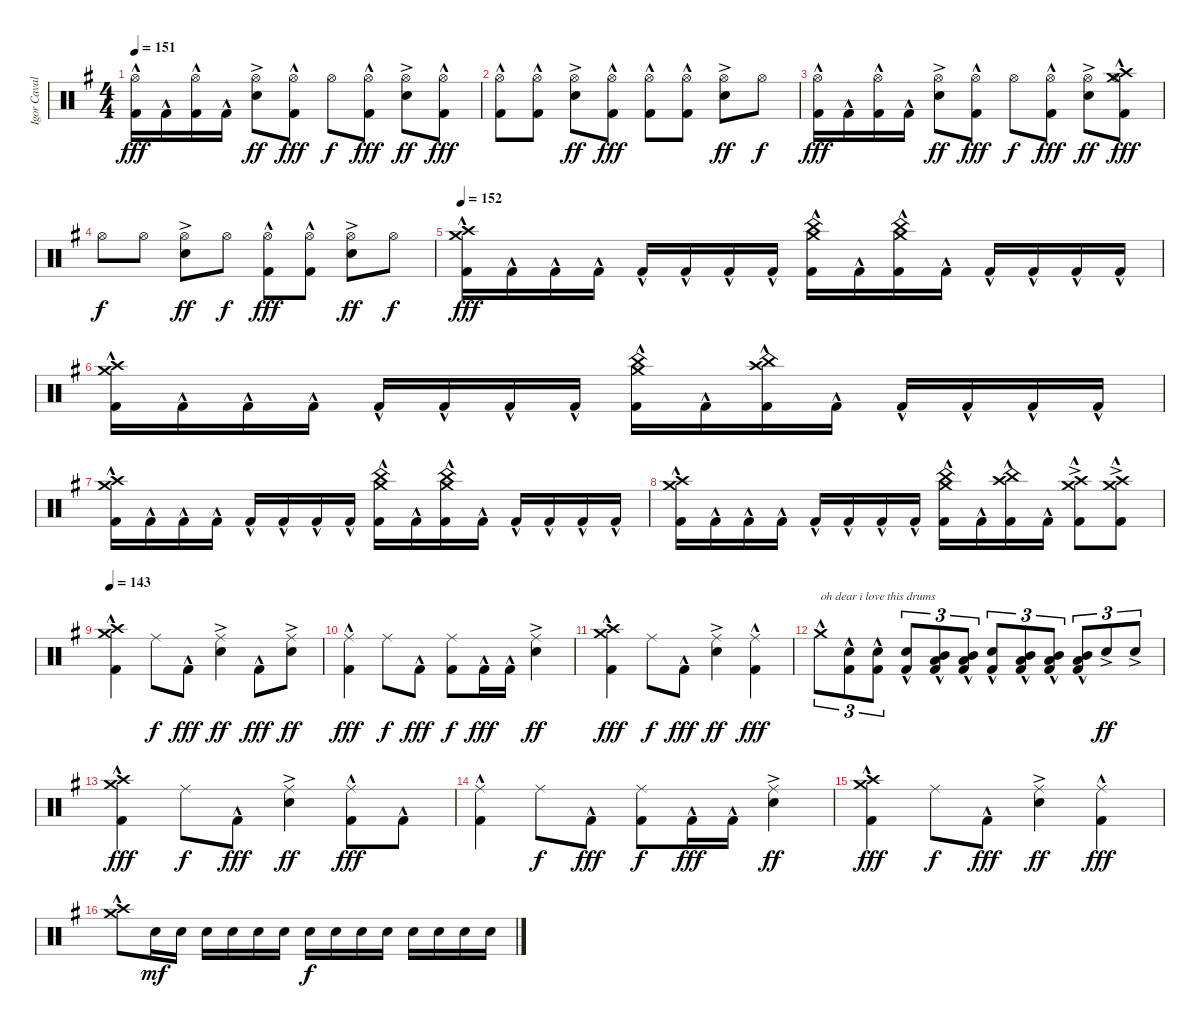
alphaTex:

\track ("Igor Cavalera" "Igor Caval") {instrument percussion}
\staff {score}
\articulation defaults
\ts (4 4)
\tempo 151
\clef neutral
\ks g
("Hi-Hat (open)" "Kick (hit) 2"{hac}).16{dy fff} "Kick (hit) 2"{hac}.16 ("Hi-Hat (open)" "Kick (hit) 2"{hac}).16 "Kick (hit) 2"{hac}.16 ("Snare (hit) 2"{ac} "Hi-Hat (open)").8{dy ff} ("Hi-Hat (open)" "Kick (hit) 2"{hac}).8{dy fff} "Hi-Hat (open)".8{dy f} ("Hi-Hat (open)" "Kick (hit) 2"{hac}).8{dy fff} ("Snare (hit) 2"{ac} "Hi-Hat (open)").8{dy ff} ("Hi-Hat (open)" "Kick (hit) 2"{hac}).8{dy fff} |
("Hi-Hat (open)" "Kick (hit) 2"{hac}).8 ("Hi-Hat (open)" "Kick (hit) 2"{hac}).8 ("Snare (hit) 2"{ac} "Hi-Hat (open)").8{dy ff} ("Hi-Hat (open)" "Kick (hit) 2"{hac}).8{dy fff} ("Hi-Hat (open)" "Kick (hit) 2"{hac}).8 ("Hi-Hat (open)" "Kick (hit) 2"{hac}).8 ("Snare (hit) 2"{ac} "Hi-Hat (open)").8{dy ff} "Hi-Hat (open)".8{dy f} |
("Hi-Hat (open)" "Kick (hit) 2"{hac}).16{dy fff} "Kick (hit) 2"{hac}.16 ("Hi-Hat (open)" "Kick (hit) 2"{hac}).16 "Kick (hit) 2"{hac}.16 ("Snare (hit) 2"{ac} "Hi-Hat (open)").8{dy ff} ("Hi-Hat (open)" "Kick (hit) 2"{hac}).8{dy fff} "Hi-Hat (open)".8{dy f} ("Hi-Hat (open)" "Kick (hit) 2"{hac}).8{dy fff} ("Snare (hit) 2"{ac} "Hi-Hat (open)").8{dy ff} ("Crash high (hit)"{hac} "Crash medium (hit)" "Hi-Hat (open)" "Kick (hit) 2"{hac}).8{dy fff} |
"Hi-Hat (open)".8{dy f} "Hi-Hat (open)".8 ("Snare (hit) 2"{ac} "Hi-Hat (open)").8{dy ff} "Hi-Hat (open)".8{dy f} ("Hi-Hat (open)" "Kick (hit) 2"{hac}).8{dy fff} ("Hi-Hat (open)" "Kick (hit) 2"{hac}).8 ("Snare (hit) 2"{ac} "Hi-Hat (open)").8{dy ff} "Hi-Hat (open)".8{dy f} |
\tempo 152
("Crash medium (hit)"{hac} "Crash high (hit)" "Kick (hit) 2"{hac}).16{dy fff} "Kick (hit) 2"{hac}.16 "Kick (hit) 2"{hac}.16 "Kick (hit) 2"{hac}.16 "Kick (hit) 2"{hac}.16 "Kick (hit) 2"{hac}.16 "Kick (hit) 2"{hac}.16 "Kick (hit) 2"{hac}.16 ("China (hit)"{hac} "Crash medium (hit)" "Kick (hit) 2"{hac}).16 "Kick (hit) 2"{hac}.16 ("China (hit)"{hac} "Crash medium (hit)" "Kick (hit) 2"{hac}).16 "Kick (hit) 2"{hac}.16 "Kick (hit) 2"{hac}.16 "Kick (hit) 2"{hac}.16 "Kick (hit) 2"{hac}.16 "Kick (hit) 2"{hac}.16 |
("Crash medium (hit)"{hac} "Crash high (hit)" "Kick (hit) 2"{hac}).16 "Kick (hit) 2"{hac}.16 "Kick (hit) 2"{hac}.16 "Kick (hit) 2"{hac}.16 "Kick (hit) 2"{hac}.16 "Kick (hit) 2"{hac}.16 "Kick (hit) 2"{hac}.16 "Kick (hit) 2"{hac}.16 ("China (hit)"{hac} "Crash medium (hit)" "Kick (hit) 2"{hac}).16 "Kick (hit) 2"{hac}.16 ("China (hit)"{hac} "Crash high (hit)" "Kick (hit) 2"{hac}).16 "Kick (hit) 2"{hac}.16 "Kick (hit) 2"{hac}.16 "Kick (hit) 2"{hac}.16 "Kick (hit) 2"{hac}.16 "Kick (hit) 2"{hac}.16 |
("Crash medium (hit)"{hac} "Crash high (hit)" "Kick (hit) 2"{hac}).16 "Kick (hit) 2"{hac}.16 "Kick (hit) 2"{hac}.16 "Kick (hit) 2"{hac}.16 "Kick (hit) 2"{hac}.16 "Kick (hit) 2"{hac}.16 "Kick (hit) 2"{hac}.16 "Kick (hit) 2"{hac}.16 ("China (hit)"{hac} "Crash medium (hit)" "Kick (hit) 2"{hac}).16 "Kick (hit) 2"{hac}.16 ("China (hit)"{hac} "Crash medium (hit)" "Kick (hit) 2"{hac}).16 "Kick (hit) 2"{hac}.16 "Kick (hit) 2"{hac}.16 "Kick (hit) 2"{hac}.16 "Kick (hit) 2"{hac}.16 "Kick (hit) 2"{hac}.16 |
("Crash medium (hit)"{hac} "Crash high (hit)" "Kick (hit) 2"{hac}).16 "Kick (hit) 2"{hac}.16 "Kick (hit) 2"{hac}.16 "Kick (hit) 2"{hac}.16 "Kick (hit) 2"{hac}.16 "Kick (hit) 2"{hac}.16 "Kick (hit) 2"{hac}.16 "Kick (hit) 2"{hac}.16 ("China (hit)"{hac} "Crash medium (hit)" "Kick (hit) 2"{hac}).16 "Kick (hit) 2"{hac}.16 ("China (hit)"{hac} "Crash high (hit)" "Kick (hit) 2"{hac}).16 "Kick (hit) 2"{hac}.16 ("Crash high (hit)"{ac} "Crash medium (hit)" "Kick (hit) 2"{hac}).8 ("Crash medium (hit)"{ac} "Crash high (hit)" "Kick (hit) 2"{hac}).8 |
\tempo 143
("Crash high (hit)"{hac} "Crash medium (hit)" "Kick (hit) 2"{hac}).4 "Ride (middle)".8{dy f} "Kick (hit) 2"{hac}.8{dy fff} ("Snare (hit) 2"{ac} "Ride (middle)").4{dy ff} "Kick (hit) 2"{hac}.8{dy fff} ("Snare (hit) 2"{ac} "Ride (middle)").8{dy ff} |
("Ride (middle)" "Kick (hit) 2"{hac}).4{dy fff} "Ride (middle)".8{dy f} "Kick (hit) 2"{hac}.8{dy fff} ("Ride (middle)" "Kick (hit) 2").8{dy f} "Kick (hit) 2"{hac}.16{dy fff} "Kick (hit) 2"{hac}.16 ("Snare (hit) 2"{ac} "Ride (middle)").4{dy ff} |
("Crash high (hit)"{hac} "Crash medium (hit)" "Kick (hit) 2"{hac}).4{dy fff} "Ride (middle)".8{dy f} "Kick (hit) 2"{hac}.8{dy fff} ("Snare (hit) 2"{ac} "Ride (middle)").4{dy ff} ("Ride (middle)" "Kick (hit) 2"{hac}).4{dy fff} |
"Crash medium (hit)"{hac}.8{tu (3 2) txt "oh dear i love this drums"} ("Snare (hit) 2" "Kick (hit) 2"{hac}).8{tu (3 2)} ("Snare (hit) 2" "Kick (hit) 2"{hac}).8{tu (3 2)} ("Snare (hit) 2" "Kick (hit) 2"{hac}).8{tu (3 2)} ("Mid Tom (hit)" "Low Tom (hit)"{hac} "Kick (hit) 2"{hac}).8{tu (3 2)} ("Mid Tom (hit)"{hac} "Low Tom (hit)"{hac} "Kick (hit) 2"{hac}).8{tu (3 2)} ("Snare (hit) 2" "Kick (hit) 2"{hac}).8{tu (3 2)} ("Mid Tom (hit)"{hac} "Low Tom (hit)"{hac} "Kick (hit) 2"{hac}).8{tu (3 2)} ("Mid Tom (hit)"{hac} "Low Tom (hit)"{hac} "Kick (hit) 2"{hac}).8{tu (3 2)} ("Mid Tom (hit)"{hac} "Low Tom (hit)"{hac} "Kick (hit) 2"{hac}).8{tu (3 2)} "Snare (hit) 2"{ac}.8{tu (3 2) dy ff} "Snare (hit) 2"{ac}.8{tu (3 2)} |
("Crash high (hit)"{hac} "Crash medium (hit)" "Kick (hit) 2"{hac}).4{dy fff} "Ride (middle)".8{dy f} "Kick (hit) 2"{hac}.8{dy fff} ("Snare (hit) 2"{ac} "Ride (middle)").4{dy ff} ("Ride (middle)" "Kick (hit) 2"{hac}).8{dy fff} "Kick (hit) 2"{hac}.8 |
("Ride (middle)" "Kick (hit) 2"{hac}).4 "Ride (middle)".8{dy f} "Kick (hit) 2"{hac}.8{dy fff} ("Ride (middle)" "Kick (hit) 2").8{dy f} "Kick (hit) 2"{hac}.16{dy fff} "Kick (hit) 2"{hac}.16 ("Snare (hit) 2"{ac} "Ride (middle)").4{dy ff} |
("Crash high (hit)"{hac} "Crash medium (hit)" "Kick (hit) 2"{hac}).4{dy fff} "Ride (middle)".8{dy f} "Kick (hit) 2"{hac}.8{dy fff} ("Snare (hit) 2"{ac} "Ride (middle)").4{dy ff} ("Ride (middle)" "Kick (hit) 2"{hac}).4{dy fff} |
("Crash medium (hit)"{hac} "Crash high (hit)").8 "Snare (hit) 2".16{dy mf} "Snare (hit) 2".16 "Snare (hit) 2".16 "Snare (hit) 2".16 "Snare (hit) 2".16 "Snare (hit) 2".16 "Snare (hit) 2".16{dy f} "Snare (hit) 2".16 "Snare (hit) 2".16 "Snare (hit) 2".16 "Snare (hit) 2".16 "Snare (hit) 2".16 "Snare (hit) 2".16 "Snare (hit) 2".16
